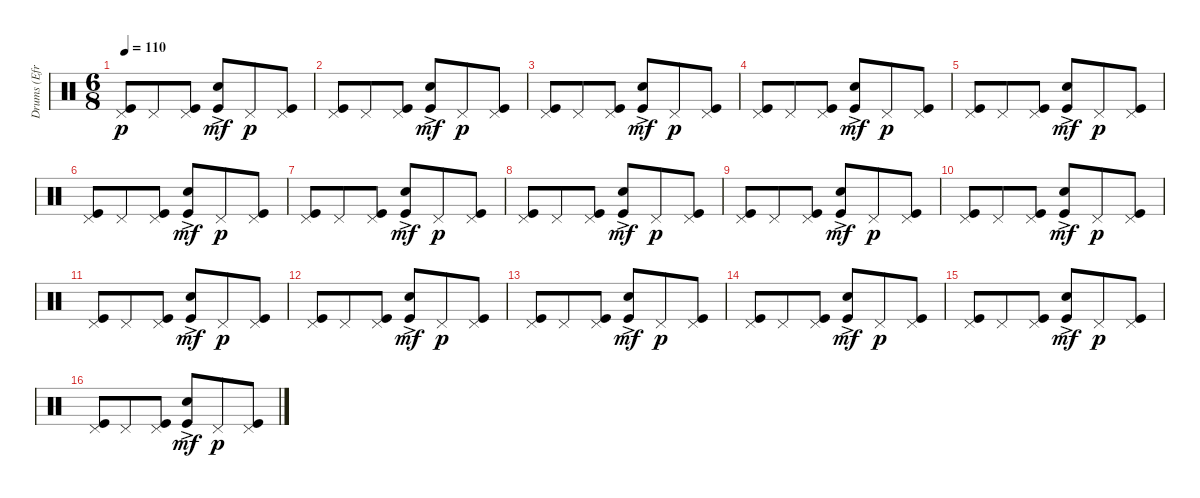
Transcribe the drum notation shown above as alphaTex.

\track ("Drums (Efremov)" "Drums (Efr") {instrument percussion}
\staff {score}
\articulation defaults
\ts (6 8)
\tempo 110
\clef neutral
\ks c
("Pedal Hi-Hat (hit)" "Kick (hit)").8{dy p} "Pedal Hi-Hat (hit)".8 ("Kick (hit)" "Pedal Hi-Hat (hit)").8 ("Kick (hit)" "Electric Snare (hit)"{ac}).8{dy mf} "Pedal Hi-Hat (hit)".8{dy p} ("Kick (hit)" "Pedal Hi-Hat (hit)").8 |
("Pedal Hi-Hat (hit)" "Kick (hit)").8 "Pedal Hi-Hat (hit)".8 ("Kick (hit)" "Pedal Hi-Hat (hit)").8 ("Kick (hit)" "Electric Snare (hit)"{ac}).8{dy mf} "Pedal Hi-Hat (hit)".8{dy p} ("Kick (hit)" "Pedal Hi-Hat (hit)").8 |
("Pedal Hi-Hat (hit)" "Kick (hit)").8 "Pedal Hi-Hat (hit)".8 ("Kick (hit)" "Pedal Hi-Hat (hit)").8 ("Kick (hit)" "Electric Snare (hit)"{ac}).8{dy mf} "Pedal Hi-Hat (hit)".8{dy p} ("Kick (hit)" "Pedal Hi-Hat (hit)").8 |
("Pedal Hi-Hat (hit)" "Kick (hit)").8 "Pedal Hi-Hat (hit)".8 ("Kick (hit)" "Pedal Hi-Hat (hit)").8 ("Kick (hit)" "Electric Snare (hit)"{ac}).8{dy mf} "Pedal Hi-Hat (hit)".8{dy p} ("Kick (hit)" "Pedal Hi-Hat (hit)").8 |
("Pedal Hi-Hat (hit)" "Kick (hit)").8 "Pedal Hi-Hat (hit)".8 ("Kick (hit)" "Pedal Hi-Hat (hit)").8 ("Kick (hit)" "Electric Snare (hit)"{ac}).8{dy mf} "Pedal Hi-Hat (hit)".8{dy p} ("Kick (hit)" "Pedal Hi-Hat (hit)").8 |
("Pedal Hi-Hat (hit)" "Kick (hit)").8 "Pedal Hi-Hat (hit)".8 ("Kick (hit)" "Pedal Hi-Hat (hit)").8 ("Kick (hit)" "Electric Snare (hit)"{ac}).8{dy mf} "Pedal Hi-Hat (hit)".8{dy p} ("Kick (hit)" "Pedal Hi-Hat (hit)").8 |
("Pedal Hi-Hat (hit)" "Kick (hit)").8 "Pedal Hi-Hat (hit)".8 ("Kick (hit)" "Pedal Hi-Hat (hit)").8 ("Kick (hit)" "Electric Snare (hit)"{ac}).8{dy mf} "Pedal Hi-Hat (hit)".8{dy p} ("Kick (hit)" "Pedal Hi-Hat (hit)").8 |
("Pedal Hi-Hat (hit)" "Kick (hit)").8 "Pedal Hi-Hat (hit)".8 ("Kick (hit)" "Pedal Hi-Hat (hit)").8 ("Kick (hit)" "Electric Snare (hit)"{ac}).8{dy mf} "Pedal Hi-Hat (hit)".8{dy p} ("Kick (hit)" "Pedal Hi-Hat (hit)").8 |
("Pedal Hi-Hat (hit)" "Kick (hit)").8 "Pedal Hi-Hat (hit)".8 ("Kick (hit)" "Pedal Hi-Hat (hit)").8 ("Kick (hit)" "Electric Snare (hit)"{ac}).8{dy mf} "Pedal Hi-Hat (hit)".8{dy p} ("Kick (hit)" "Pedal Hi-Hat (hit)").8 |
("Pedal Hi-Hat (hit)" "Kick (hit)").8 "Pedal Hi-Hat (hit)".8 ("Kick (hit)" "Pedal Hi-Hat (hit)").8 ("Kick (hit)" "Electric Snare (hit)"{ac}).8{dy mf} "Pedal Hi-Hat (hit)".8{dy p} ("Kick (hit)" "Pedal Hi-Hat (hit)").8 |
("Pedal Hi-Hat (hit)" "Kick (hit)").8 "Pedal Hi-Hat (hit)".8 ("Kick (hit)" "Pedal Hi-Hat (hit)").8 ("Kick (hit)" "Electric Snare (hit)"{ac}).8{dy mf} "Pedal Hi-Hat (hit)".8{dy p} ("Kick (hit)" "Pedal Hi-Hat (hit)").8 |
("Pedal Hi-Hat (hit)" "Kick (hit)").8 "Pedal Hi-Hat (hit)".8 ("Kick (hit)" "Pedal Hi-Hat (hit)").8 ("Kick (hit)" "Electric Snare (hit)"{ac}).8{dy mf} "Pedal Hi-Hat (hit)".8{dy p} ("Kick (hit)" "Pedal Hi-Hat (hit)").8 |
("Pedal Hi-Hat (hit)" "Kick (hit)").8 "Pedal Hi-Hat (hit)".8 ("Kick (hit)" "Pedal Hi-Hat (hit)").8 ("Kick (hit)" "Electric Snare (hit)"{ac}).8{dy mf} "Pedal Hi-Hat (hit)".8{dy p} ("Kick (hit)" "Pedal Hi-Hat (hit)").8 |
("Pedal Hi-Hat (hit)" "Kick (hit)").8 "Pedal Hi-Hat (hit)".8 ("Kick (hit)" "Pedal Hi-Hat (hit)").8 ("Kick (hit)" "Electric Snare (hit)"{ac}).8{dy mf} "Pedal Hi-Hat (hit)".8{dy p} ("Kick (hit)" "Pedal Hi-Hat (hit)").8 |
("Pedal Hi-Hat (hit)" "Kick (hit)").8 "Pedal Hi-Hat (hit)".8 ("Kick (hit)" "Pedal Hi-Hat (hit)").8 ("Kick (hit)" "Electric Snare (hit)"{ac}).8{dy mf} "Pedal Hi-Hat (hit)".8{dy p} ("Kick (hit)" "Pedal Hi-Hat (hit)").8 |
("Pedal Hi-Hat (hit)" "Kick (hit)").8 "Pedal Hi-Hat (hit)".8 ("Kick (hit)" "Pedal Hi-Hat (hit)").8 ("Kick (hit)" "Electric Snare (hit)"{ac}).8{dy mf} "Pedal Hi-Hat (hit)".8{dy p} ("Kick (hit)" "Pedal Hi-Hat (hit)").8
